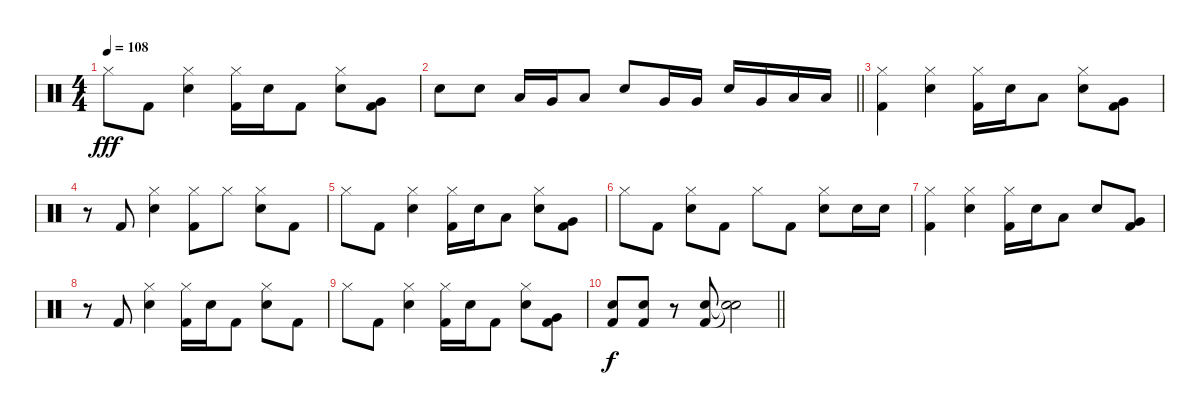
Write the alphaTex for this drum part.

\track "" {instrument percussion}
\staff {score}
\articulation defaults
\ts (4 4)
\tempo 108
\clef neutral
\ks c "Hi-Hat (closed)".8{dy fff} "Kick (hit) 2".8
("Electric Snare (hit)" "Hi-Hat (closed)").4 ("Kick (hit) 2" "Hi-Hat (closed)").16 "Electric Snare (hit)".16 "Kick (hit) 2".8 ("Electric Snare (hit)" "Hi-Hat (closed)").8 ("Very Low Tom (hit)" "Kick (hit) 2").8 |
\barLineRight lightlight "Electric Snare (hit)".8 "Electric Snare (hit)".8 "Low Tom (hit)".16 "Very Low Tom (hit)".16 "Low Floor Tom (hit)".8 "Electric Snare (hit)".8 "Very Low Tom (hit)".16 "Very Low Tom (hit)".16 "Electric Snare (hit)".16 "Very Low Tom (hit)".16 "Low Floor Tom (hit)".16 "Low Floor Tom (hit)".16
|
\section ("" "")
("Hi-Hat (closed)" "Kick (hit) 2").4 ("Hi-Hat (closed)" "Electric Snare (hit)").4 ("Hi-Hat (closed)" "Kick (hit) 2").16 "Electric Snare (hit)".16 "Low Floor Tom (hit)".8 ("Electric Snare (hit)" "Hi-Hat (closed)").8 ("Very Low Tom (hit)" "Kick (hit) 2").8 |
r.8 "Kick (hit) 2".8 ("Electric Snare (hit)" "Hi-Hat (closed)").4 ("Kick (hit) 2" "Hi-Hat (closed)").8 "Hi-Hat (closed)".8 ("Hi-Hat (closed)" "Electric Snare (hit)").8 "Kick (hit) 2".8 |
"Hi-Hat (closed)".8 "Kick (hit) 2".8 ("Electric Snare (hit)" "Hi-Hat (closed)").4 ("Kick (hit) 2" "Hi-Hat (closed)").16 "Electric Snare (hit)".16 "Low Floor Tom (hit)".8 ("Electric Snare (hit)" "Hi-Hat (closed)").8 ("Very Low Tom (hit)" "Kick (hit) 2").8 |
"Hi-Hat (closed)".8 "Kick (hit) 2".8 ("Electric Snare (hit)" "Hi-Hat (closed)").8 "Kick (hit) 2".8 "Hi-Hat (closed)".8 "Kick (hit) 2".8 ("Electric Snare (hit)" "Hi-Hat (closed)").8 "Electric Snare (hit)".16 "Electric Snare (hit)".16 |
("Hi-Hat (closed)" "Kick (hit) 2").4 ("Hi-Hat (closed)" "Electric Snare (hit)").4 ("Kick (hit) 2" "Hi-Hat (closed)").16 "Electric Snare (hit)".16 "Low Floor Tom (hit)".8 "Electric Snare (hit)".8 ("Very Low Tom (hit)" "Kick (hit) 2").8 |
r.8 "Kick (hit) 2".8 ("Electric Snare (hit)" "Hi-Hat (closed)").4 ("Kick (hit) 2" "Hi-Hat (closed)").16 "Electric Snare (hit)".16 "Kick (hit) 2".8 ("Hi-Hat (closed)" "Electric Snare (hit)").8 "Kick (hit) 2".8 |
"Hi-Hat (closed)".8 "Kick (hit) 2".8 ("Electric Snare (hit)" "Hi-Hat (closed)").4 ("Kick (hit) 2" "Hi-Hat (closed)").16 "Electric Snare (hit)".16 "Kick (hit) 2".8 ("Electric Snare (hit)" "Hi-Hat (closed)").8 ("Very Low Tom (hit)" "Kick (hit) 2").8 |
\barLineRight lightlight
("Electric Snare (hit)" "Kick (hit) 2").8{dy f} ("Electric Snare (hit)" "Kick (hit) 2").8 r.8 ("Electric Snare (hit)" "Kick (hit) 2").8 ("Snare (hit)"{t} "Snare (hit)"{t}).2
